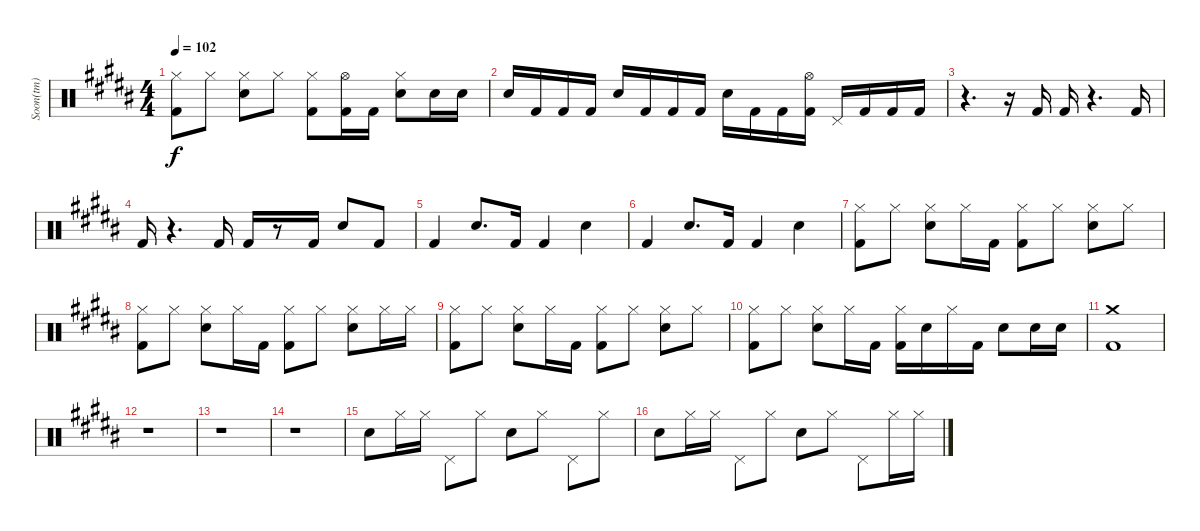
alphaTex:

\track ("Soon(tm)" "Soon(tm)") {instrument percussion}
\staff {score}
\articulation defaults
\ts (4 4)
\tempo 102
\clef neutral
\ks g#minor
("Hi-Hat (closed)" "Kick (hit) 2").8{dy f} "Hi-Hat (closed)".8 ("Snare (hit) 2" "Hi-Hat (closed)").8 "Hi-Hat (closed)".8 ("Hi-Hat (closed)" "Kick (hit) 2").8 ("Hi-Hat (open)" "Kick (hit) 2").16 "Kick (hit) 2".16 ("Snare (hit) 2" "Hi-Hat (closed)").8 "Snare (hit) 2".16 "Snare (hit) 2".16 |
"Snare (hit) 2".16 "Kick (hit) 2".16 "Kick (hit) 2".16 "Kick (hit) 2".16 "Snare (hit) 2".16 "Kick (hit) 2".16 "Kick (hit) 2".16 "Kick (hit) 2".16 "Snare (hit) 2".16 "Kick (hit) 2".16 "Kick (hit) 2".16 ("Hi-Hat (open)" "Kick (hit) 2").16 "Pedal Hi-Hat (hit)".16 "Kick (hit) 2".16 "Kick (hit) 2".16 "Kick (hit) 2".16 |
r.4{d} r.16 "Kick (hit) 2".16 "Kick (hit) 2".16 r.4{d} "Kick (hit) 2".16 |
"Kick (hit) 2".16 r.4{d} "Kick (hit) 2".16 "Kick (hit) 2".16 r.8 "Kick (hit) 2".16 "Snare (hit) 2".8 "Kick (hit) 2".8 |
"Kick (hit) 2".4 "Snare (hit) 2".8{d} "Kick (hit) 2".16 "Kick (hit) 2".4 "Snare (hit) 2".4 |
"Kick (hit) 2".4 "Snare (hit) 2".8{d} "Kick (hit) 2".16 "Kick (hit) 2".4 "Snare (hit) 2".4 |
("Hi-Hat (closed)" "Kick (hit) 2").8 "Hi-Hat (closed)".8 ("Snare (hit) 2" "Hi-Hat (closed)").8 "Hi-Hat (closed)".16 "Kick (hit) 2".16 ("Hi-Hat (closed)" "Kick (hit) 2").8 "Hi-Hat (closed)".8 ("Snare (hit) 2" "Hi-Hat (closed)").8 "Hi-Hat (closed)".8 |
("Hi-Hat (closed)" "Kick (hit) 2").8 "Hi-Hat (closed)".8 ("Snare (hit) 2" "Hi-Hat (closed)").8 "Hi-Hat (closed)".16 "Kick (hit) 2".16 ("Hi-Hat (closed)" "Kick (hit) 2").8 "Hi-Hat (closed)".8 ("Snare (hit) 2" "Hi-Hat (closed)").8 "Hi-Hat (closed)".16 "Hi-Hat (closed)".16 |
("Hi-Hat (closed)" "Kick (hit) 2").8 "Hi-Hat (closed)".8 ("Snare (hit) 2" "Hi-Hat (closed)").8 "Hi-Hat (closed)".16 "Kick (hit) 2".16 ("Hi-Hat (closed)" "Kick (hit) 2").8 "Hi-Hat (closed)".8 ("Snare (hit) 2" "Hi-Hat (closed)").8 "Hi-Hat (closed)".8 |
("Hi-Hat (closed)" "Kick (hit) 2").8 "Hi-Hat (closed)".8 ("Snare (hit) 2" "Hi-Hat (closed)").8 "Hi-Hat (closed)".16 "Kick (hit) 2".16 ("Hi-Hat (closed)" "Kick (hit) 2").16 "Snare (hit) 2".16 "Hi-Hat (closed)".16 "Kick (hit) 2".16 "Snare (hit) 2".8 "Snare (hit) 2".16 "Snare (hit) 2".16 |
("Crash medium (hit)" "Kick (hit) 2").1 |
r.1 |
r.1 |
r.1 |
"Snare (hit) 2".8 "Hi-Hat (closed)".16 "Hi-Hat (closed)".16 "Pedal Hi-Hat (hit)".8 "Hi-Hat (closed)".8 "Snare (hit) 2".8 "Hi-Hat (closed)".8 "Pedal Hi-Hat (hit)".8 "Hi-Hat (closed)".8 |
"Snare (hit) 2".8 "Hi-Hat (closed)".16 "Hi-Hat (closed)".16 "Pedal Hi-Hat (hit)".8 "Hi-Hat (closed)".8 "Snare (hit) 2".8 "Hi-Hat (closed)".8 "Pedal Hi-Hat (hit)".8 "Hi-Hat (closed)".16 "Hi-Hat (closed)".16
